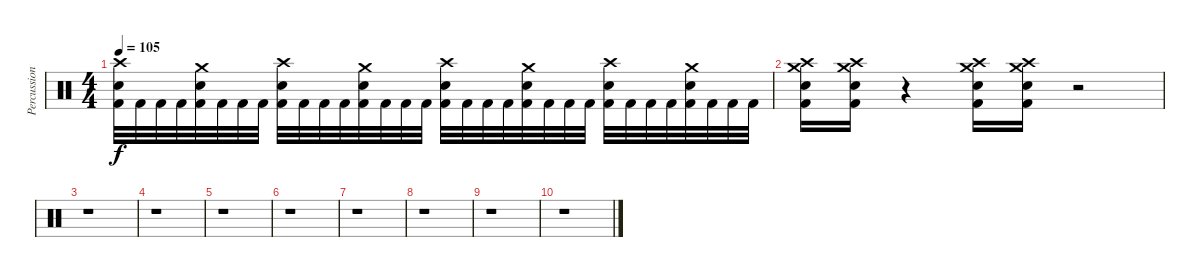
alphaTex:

\track ("Percussion" "Percussion") {instrument percussion}
\staff {score}
\articulation defaults
\ts (4 4)
\tempo 105
\clef neutral
\ks c
("Crash high (hit)" "Electric Snare (hit)" "Kick (hit) 2").32{dy f} "Kick (hit) 2".32 "Kick (hit) 2".32 "Kick (hit) 2".32 ("Crash medium (hit)" "Electric Snare (hit)" "Kick (hit) 2").32 "Kick (hit) 2".32 "Kick (hit) 2".32 "Kick (hit) 2".32 ("Crash high (hit)" "Electric Snare (hit)" "Kick (hit) 2").32 "Kick (hit) 2".32 "Kick (hit) 2".32 "Kick (hit) 2".32 ("Crash medium (hit)" "Electric Snare (hit)" "Kick (hit) 2").32 "Kick (hit) 2".32 "Kick (hit) 2".32 "Kick (hit) 2".32 ("Crash high (hit)" "Electric Snare (hit)" "Kick (hit) 2").32 "Kick (hit) 2".32 "Kick (hit) 2".32 "Kick (hit) 2".32 ("Crash medium (hit)" "Electric Snare (hit)" "Kick (hit) 2").32 "Kick (hit) 2".32 "Kick (hit) 2".32 "Kick (hit) 2".32 ("Crash high (hit)" "Electric Snare (hit)" "Kick (hit) 2").32 "Kick (hit) 2".32 "Kick (hit) 2".32 "Kick (hit) 2".32 ("Crash medium (hit)" "Electric Snare (hit)" "Kick (hit) 2").32 "Kick (hit) 2".32 "Kick (hit) 2".32 "Kick (hit) 2".32 |
("Crash medium (hit)" "Crash high (hit)" "Electric Snare (hit)" "Kick (hit) 2").16 ("Crash medium (hit)" "Crash high (hit)" "Electric Snare (hit)" "Kick (hit) 2").16 r.4 ("Crash medium (hit)" "Crash high (hit)" "Electric Snare (hit)" "Kick (hit) 2").16 ("Crash medium (hit)" "Crash high (hit)" "Electric Snare (hit)" "Kick (hit) 2").16 r.2 |
r.1 |
r.1 |
r.1 |
r.1 |
r.1 |
r.1 |
r.1 |
r.1
